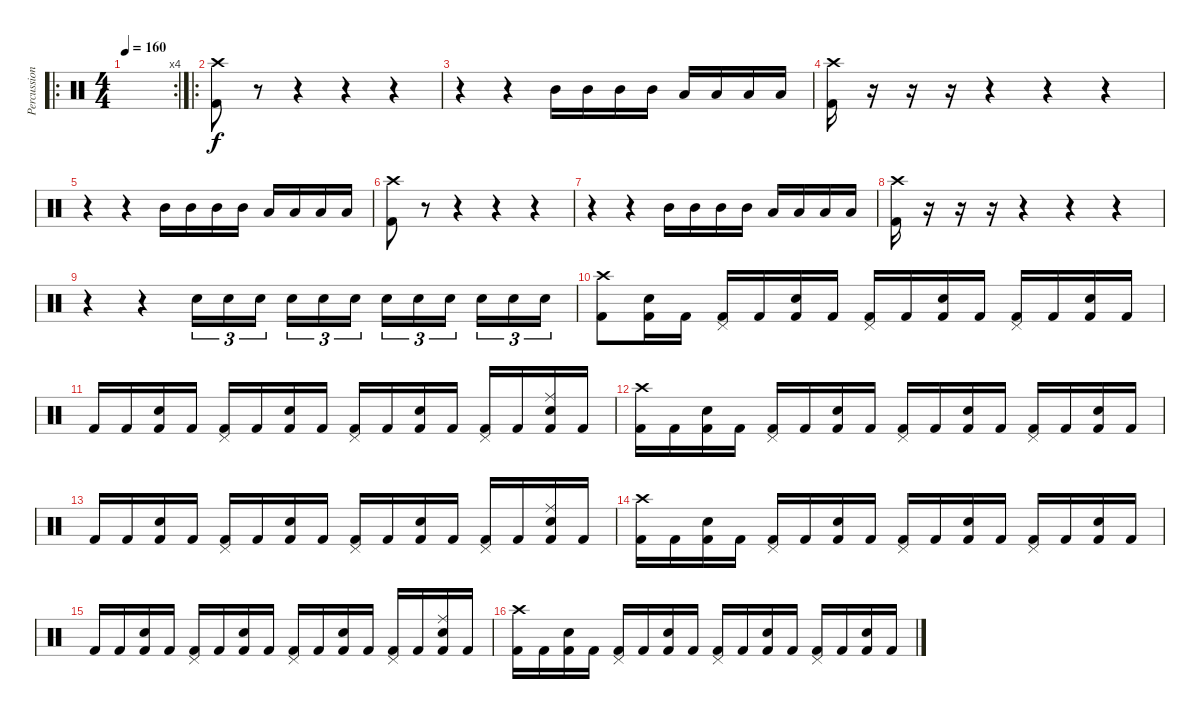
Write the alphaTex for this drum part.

\track ("Percussions" "Percussion") {instrument percussion}
\staff {score}
\articulation defaults
\ro
\rc 4
\ts (4 4)
\tempo 160
\clef neutral
\ks c
|
\ro
("Crash high (hit)" "Kick (hit) 2").8 r.8 r.4 r.4 r.4 |
r.4 r.4 "Mid Tom (hit)".16 "Mid Tom (hit)".16 "Mid Tom (hit)".16 "Mid Tom (hit)".16 "Low Tom (hit)".16 "Low Tom (hit)".16 "Low Floor Tom (hit)".16 "Low Floor Tom (hit)".16 |
("Crash high (hit)" "Kick (hit) 2").16 r.16 r.16 r.16 r.4 r.4 r.4 |
r.4 r.4 "Mid Tom (hit)".16 "Mid Tom (hit)".16 "Mid Tom (hit)".16 "Mid Tom (hit)".16 "Low Tom (hit)".16 "Low Tom (hit)".16 "Low Floor Tom (hit)".16 "Low Floor Tom (hit)".16 |
("Crash high (hit)" "Kick (hit) 2").8 r.8 r.4 r.4 r.4 |
r.4 r.4 "Mid Tom (hit)".16 "Mid Tom (hit)".16 "Mid Tom (hit)".16 "Mid Tom (hit)".16 "Low Tom (hit)".16 "Low Tom (hit)".16 "Low Floor Tom (hit)".16 "Low Floor Tom (hit)".16 |
("Crash high (hit)" "Kick (hit) 2").16 r.16 r.16 r.16 r.4 r.4 r.4 |
r.4 r.4 "Electric Snare (hit)".16{tu (3 2)} "Electric Snare (hit)".16{tu (3 2)} "Electric Snare (hit)".16{tu (3 2)} "Electric Snare (hit)".16{tu (3 2)} "Electric Snare (hit)".16{tu (3 2)} "Electric Snare (hit)".16{tu (3 2)} "Electric Snare (hit)".16{tu (3 2)} "Electric Snare (hit)".16{tu (3 2)} "Electric Snare (hit)".16{tu (3 2)} "Electric Snare (hit)".16{tu (3 2)} "Electric Snare (hit)".16{tu (3 2)} "Electric Snare (hit)".16{tu (3 2)} |
("Crash high (hit)" "Kick (hit) 2").8 ("Electric Snare (hit)" "Kick (hit) 2").16 "Kick (hit) 2".16 ("Pedal Hi-Hat (hit)" "Kick (hit) 2").16 "Kick (hit) 2".16 ("Electric Snare (hit)" "Kick (hit) 2").16 "Kick (hit) 2".16 ("Pedal Hi-Hat (hit)" "Kick (hit) 2").16 "Kick (hit) 2".16 ("Electric Snare (hit)" "Kick (hit) 2").16 "Kick (hit) 2".16 ("Pedal Hi-Hat (hit)" "Kick (hit) 2").16 "Kick (hit) 2".16 ("Electric Snare (hit)" "Kick (hit) 2").16 "Kick (hit) 2".16 |
"Kick (hit) 2".16 "Kick (hit) 2".16 ("Electric Snare (hit)" "Kick (hit) 2").16 "Kick (hit) 2".16 ("Pedal Hi-Hat (hit)" "Kick (hit) 2").16 "Kick (hit) 2".16 ("Electric Snare (hit)" "Kick (hit) 2").16 "Kick (hit) 2".16 ("Pedal Hi-Hat (hit)" "Kick (hit) 2").16 "Kick (hit) 2".16 ("Electric Snare (hit)" "Kick (hit) 2").16 "Kick (hit) 2".16 ("Pedal Hi-Hat (hit)" "Kick (hit) 2").16 "Kick (hit) 2".16 ("Ride (middle)" "Electric Snare (hit)" "Kick (hit) 2").16 "Kick (hit) 2".16 |
("Kick (hit) 2" "Crash high (hit)").16 "Kick (hit) 2".16 ("Electric Snare (hit)" "Kick (hit) 2").16 "Kick (hit) 2".16 ("Pedal Hi-Hat (hit)" "Kick (hit) 2").16 "Kick (hit) 2".16 ("Electric Snare (hit)" "Kick (hit) 2").16 "Kick (hit) 2".16 ("Pedal Hi-Hat (hit)" "Kick (hit) 2").16 "Kick (hit) 2".16 ("Electric Snare (hit)" "Kick (hit) 2").16 "Kick (hit) 2".16 ("Pedal Hi-Hat (hit)" "Kick (hit) 2").16 "Kick (hit) 2".16 ("Electric Snare (hit)" "Kick (hit) 2").16 "Kick (hit) 2".16 |
"Kick (hit) 2".16 "Kick (hit) 2".16 ("Electric Snare (hit)" "Kick (hit) 2").16 "Kick (hit) 2".16 ("Pedal Hi-Hat (hit)" "Kick (hit) 2").16 "Kick (hit) 2".16 ("Electric Snare (hit)" "Kick (hit) 2").16 "Kick (hit) 2".16 ("Pedal Hi-Hat (hit)" "Kick (hit) 2").16 "Kick (hit) 2".16 ("Electric Snare (hit)" "Kick (hit) 2").16 "Kick (hit) 2".16 ("Pedal Hi-Hat (hit)" "Kick (hit) 2").16 "Kick (hit) 2".16 ("Ride (middle)" "Electric Snare (hit)" "Kick (hit) 2").16 "Kick (hit) 2".16 |
("Kick (hit) 2" "Crash high (hit)").16 "Kick (hit) 2".16 ("Electric Snare (hit)" "Kick (hit) 2").16 "Kick (hit) 2".16 ("Pedal Hi-Hat (hit)" "Kick (hit) 2").16 "Kick (hit) 2".16 ("Electric Snare (hit)" "Kick (hit) 2").16 "Kick (hit) 2".16 ("Pedal Hi-Hat (hit)" "Kick (hit) 2").16 "Kick (hit) 2".16 ("Electric Snare (hit)" "Kick (hit) 2").16 "Kick (hit) 2".16 ("Pedal Hi-Hat (hit)" "Kick (hit) 2").16 "Kick (hit) 2".16 ("Electric Snare (hit)" "Kick (hit) 2").16 "Kick (hit) 2".16 |
"Kick (hit) 2".16 "Kick (hit) 2".16 ("Electric Snare (hit)" "Kick (hit) 2").16 "Kick (hit) 2".16 ("Pedal Hi-Hat (hit)" "Kick (hit) 2").16 "Kick (hit) 2".16 ("Electric Snare (hit)" "Kick (hit) 2").16 "Kick (hit) 2".16 ("Pedal Hi-Hat (hit)" "Kick (hit) 2").16 "Kick (hit) 2".16 ("Electric Snare (hit)" "Kick (hit) 2").16 "Kick (hit) 2".16 ("Pedal Hi-Hat (hit)" "Kick (hit) 2").16 "Kick (hit) 2".16 ("Ride (middle)" "Electric Snare (hit)" "Kick (hit) 2").16 "Kick (hit) 2".16 |
("Kick (hit) 2" "Crash high (hit)").16 "Kick (hit) 2".16 ("Electric Snare (hit)" "Kick (hit) 2").16 "Kick (hit) 2".16 ("Pedal Hi-Hat (hit)" "Kick (hit) 2").16 "Kick (hit) 2".16 ("Electric Snare (hit)" "Kick (hit) 2").16 "Kick (hit) 2".16 ("Pedal Hi-Hat (hit)" "Kick (hit) 2").16 "Kick (hit) 2".16 ("Electric Snare (hit)" "Kick (hit) 2").16 "Kick (hit) 2".16 ("Pedal Hi-Hat (hit)" "Kick (hit) 2").16 "Kick (hit) 2".16 ("Electric Snare (hit)" "Kick (hit) 2").16 "Kick (hit) 2".16
